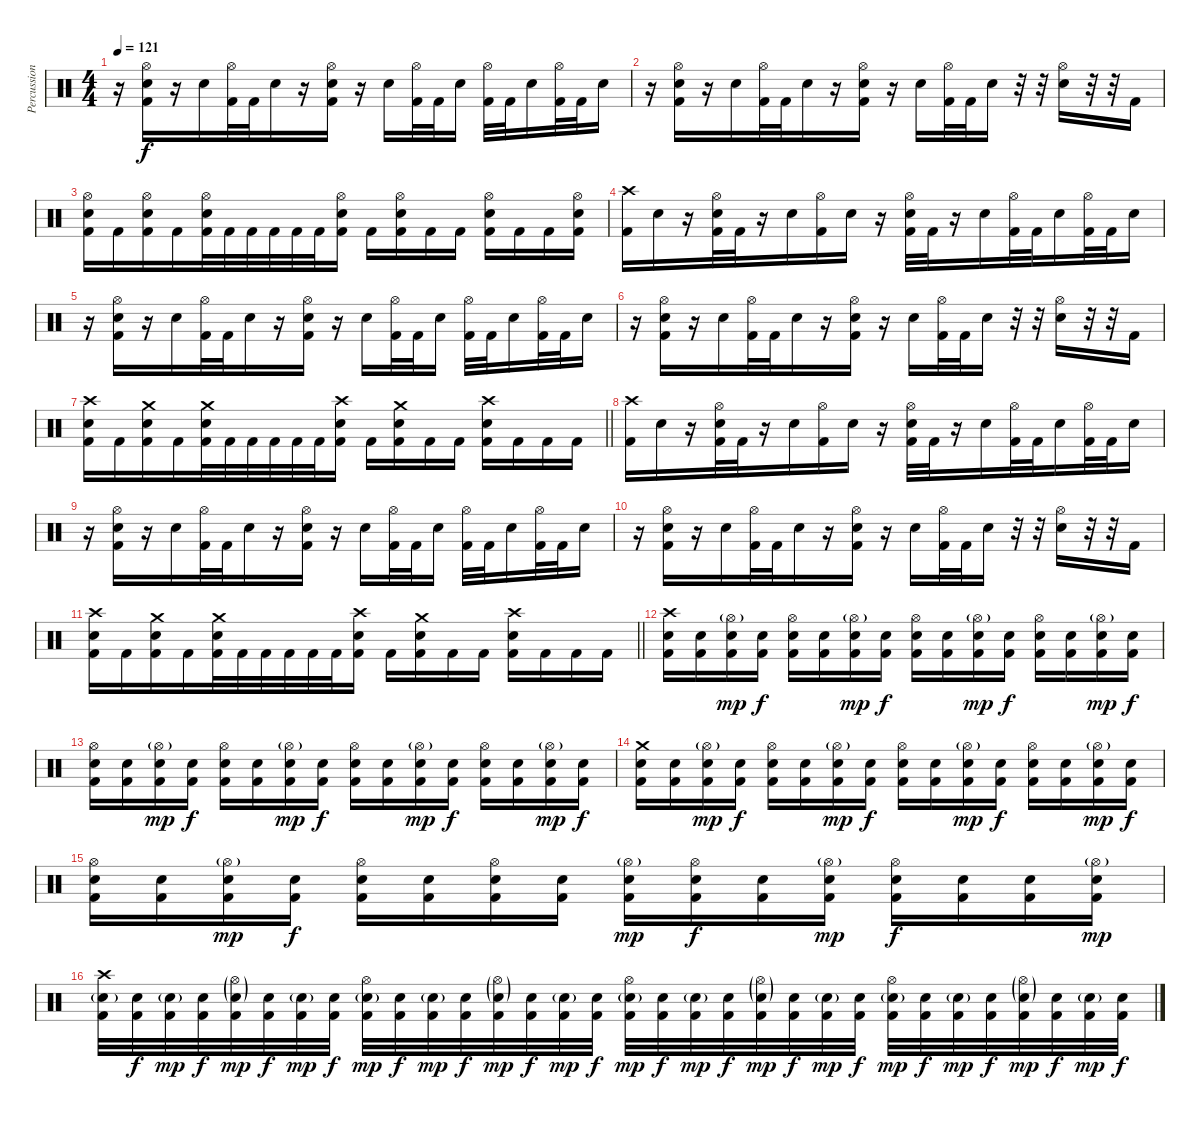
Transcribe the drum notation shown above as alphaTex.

\track ("Percussion" "Percussion") {instrument percussion}
\staff {score}
\articulation defaults
\ts (4 4)
\tempo 121
\clef neutral
\ks c
r.16{dy f} ("Hi-Hat (open)" "Electric Snare (hit)" "Kick (hit) 2").16 r.16 "Electric Snare (hit)".16{beam merge} ("Hi-Hat (open)" "Kick (hit) 2").32 "Kick (hit) 2".32 "Electric Snare (hit)".16 r.16 ("Hi-Hat (open)" "Electric Snare (hit)" "Kick (hit) 2").16 r.16 "Electric Snare (hit)".16 ("Hi-Hat (open)" "Kick (hit) 2").32{beam merge} "Kick (hit) 2".32 "Electric Snare (hit)".16 ("Hi-Hat (open)" "Kick (hit) 2").32{beam merge} "Kick (hit) 2".32 "Electric Snare (hit)".16{beam merge} ("Hi-Hat (open)" "Kick (hit) 2").32{beam merge} "Kick (hit) 2".32 "Electric Snare (hit)".16 |
r.16 ("Hi-Hat (open)" "Electric Snare (hit)" "Kick (hit) 2").16 r.16 "Electric Snare (hit)".16{beam merge} ("Hi-Hat (open)" "Kick (hit) 2").32 "Kick (hit) 2".32 "Electric Snare (hit)".16 r.16 ("Hi-Hat (open)" "Electric Snare (hit)" "Kick (hit) 2").16 r.16 "Electric Snare (hit)".16 ("Hi-Hat (open)" "Kick (hit) 2").32{beam merge} "Kick (hit) 2".32 "Electric Snare (hit)".16 r.32{beam merge} r.32 ("Hi-Hat (open)" "Electric Snare (hit)").16{beam merge} r.32{beam merge} r.32 "Kick (hit) 2".16 |
("Hi-Hat (open)" "Electric Snare (hit)" "Kick (hit) 2").16 "Kick (hit) 2".16 ("Hi-Hat (open)" "Electric Snare (hit)" "Kick (hit) 2").16 "Kick (hit) 2".16{beam merge} ("Hi-Hat (open)" "Electric Snare (hit)" "Kick (hit) 2").32 "Kick (hit) 2".32 "Kick (hit) 2".32 "Kick (hit) 2".32 "Kick (hit) 2".32{beam merge} "Kick (hit) 2".32 ("Hi-Hat (open)" "Electric Snare (hit)" "Kick (hit) 2").16 "Kick (hit) 2".16 ("Hi-Hat (open)" "Electric Snare (hit)" "Kick (hit) 2").16 "Kick (hit) 2".16 "Kick (hit) 2".16 ("Hi-Hat (open)" "Electric Snare (hit)" "Kick (hit) 2").16 "Kick (hit) 2".16 "Kick (hit) 2".16 ("Hi-Hat (open)" "Electric Snare (hit)" "Kick (hit) 2").16 |
("Crash high (hit)" "Kick (hit) 2").16 "Electric Snare (hit)".16{beam merge} r.16 ("Hi-Hat (open)" "Electric Snare (hit)" "Kick (hit) 2").32 "Kick (hit) 2".32{beam merge} r.16 "Electric Snare (hit)".16{beam merge} ("Hi-Hat (open)" "Kick (hit) 2").16 "Electric Snare (hit)".16 r.16{beam merge} ("Hi-Hat (open)" "Electric Snare (hit)" "Kick (hit) 2").32{beam merge} "Kick (hit) 2".32{beam merge} r.16 "Electric Snare (hit)".16{beam merge} ("Hi-Hat (open)" "Kick (hit) 2").32 "Kick (hit) 2".32 "Electric Snare (hit)".16{beam merge} ("Hi-Hat (open)" "Kick (hit) 2").32 "Kick (hit) 2".32 "Electric Snare (hit)".16 |
r.16 ("Hi-Hat (open)" "Electric Snare (hit)" "Kick (hit) 2").16 r.16 "Electric Snare (hit)".16{beam merge} ("Hi-Hat (open)" "Kick (hit) 2").32 "Kick (hit) 2".32 "Electric Snare (hit)".16 r.16 ("Hi-Hat (open)" "Electric Snare (hit)" "Kick (hit) 2").16 r.16 "Electric Snare (hit)".16 ("Hi-Hat (open)" "Kick (hit) 2").32{beam merge} "Kick (hit) 2".32 "Electric Snare (hit)".16 ("Hi-Hat (open)" "Kick (hit) 2").32{beam merge} "Kick (hit) 2".32 "Electric Snare (hit)".16{beam merge} ("Hi-Hat (open)" "Kick (hit) 2").32{beam merge} "Kick (hit) 2".32 "Electric Snare (hit)".16 |
r.16 ("Hi-Hat (open)" "Electric Snare (hit)" "Kick (hit) 2").16 r.16 "Electric Snare (hit)".16{beam merge} ("Hi-Hat (open)" "Kick (hit) 2").32 "Kick (hit) 2".32 "Electric Snare (hit)".16 r.16 ("Hi-Hat (open)" "Electric Snare (hit)" "Kick (hit) 2").16 r.16 "Electric Snare (hit)".16 ("Hi-Hat (open)" "Kick (hit) 2").32{beam merge} "Kick (hit) 2".32 "Electric Snare (hit)".16 r.32{beam merge} r.32 ("Hi-Hat (open)" "Electric Snare (hit)").16{beam merge} r.32{beam merge} r.32 "Kick (hit) 2".16 |
\barLineRight lightlight
("Crash high (hit)" "Electric Snare (hit)" "Kick (hit) 2").16 "Kick (hit) 2".16 ("Crash medium (hit)" "Electric Snare (hit)" "Kick (hit) 2").16 "Kick (hit) 2".16{beam merge} ("Crash medium (hit)" "Electric Snare (hit)" "Kick (hit) 2").32 "Kick (hit) 2".32 "Kick (hit) 2".32 "Kick (hit) 2".32 "Kick (hit) 2".32{beam merge} "Kick (hit) 2".32 ("Crash high (hit)" "Electric Snare (hit)" "Kick (hit) 2").16 "Kick (hit) 2".16 ("Crash medium (hit)" "Electric Snare (hit)" "Kick (hit) 2").16 "Kick (hit) 2".16 "Kick (hit) 2".16 ("Crash high (hit)" "Electric Snare (hit)" "Kick (hit) 2").16 "Kick (hit) 2".16 "Kick (hit) 2".16 "Kick (hit) 2".16 |
("Crash high (hit)" "Kick (hit) 2").16 "Electric Snare (hit)".16{beam merge} r.16 ("Hi-Hat (open)" "Electric Snare (hit)" "Kick (hit) 2").32 "Kick (hit) 2".32{beam merge} r.16 "Electric Snare (hit)".16{beam merge} ("Hi-Hat (open)" "Kick (hit) 2").16 "Electric Snare (hit)".16 r.16{beam merge} ("Hi-Hat (open)" "Electric Snare (hit)" "Kick (hit) 2").32{beam merge} "Kick (hit) 2".32{beam merge} r.16 "Electric Snare (hit)".16{beam merge} ("Hi-Hat (open)" "Kick (hit) 2").32 "Kick (hit) 2".32 "Electric Snare (hit)".16{beam merge} ("Hi-Hat (open)" "Kick (hit) 2").32 "Kick (hit) 2".32 "Electric Snare (hit)".16 |
r.16 ("Hi-Hat (open)" "Electric Snare (hit)" "Kick (hit) 2").16 r.16 "Electric Snare (hit)".16{beam merge} ("Hi-Hat (open)" "Kick (hit) 2").32 "Kick (hit) 2".32 "Electric Snare (hit)".16 r.16 ("Hi-Hat (open)" "Electric Snare (hit)" "Kick (hit) 2").16 r.16 "Electric Snare (hit)".16 ("Hi-Hat (open)" "Kick (hit) 2").32{beam merge} "Kick (hit) 2".32 "Electric Snare (hit)".16 ("Hi-Hat (open)" "Kick (hit) 2").32{beam merge} "Kick (hit) 2".32 "Electric Snare (hit)".16{beam merge} ("Hi-Hat (open)" "Kick (hit) 2").32{beam merge} "Kick (hit) 2".32 "Electric Snare (hit)".16 |
r.16 ("Hi-Hat (open)" "Electric Snare (hit)" "Kick (hit) 2").16 r.16 "Electric Snare (hit)".16{beam merge} ("Hi-Hat (open)" "Kick (hit) 2").32 "Kick (hit) 2".32 "Electric Snare (hit)".16 r.16 ("Hi-Hat (open)" "Electric Snare (hit)" "Kick (hit) 2").16 r.16 "Electric Snare (hit)".16 ("Hi-Hat (open)" "Kick (hit) 2").32{beam merge} "Kick (hit) 2".32 "Electric Snare (hit)".16 r.32{beam merge} r.32 ("Hi-Hat (open)" "Electric Snare (hit)").16{beam merge} r.32{beam merge} r.32 "Kick (hit) 2".16 |
\barLineRight lightlight
("Crash high (hit)" "Electric Snare (hit)" "Kick (hit) 2").16 "Kick (hit) 2".16 ("Crash medium (hit)" "Electric Snare (hit)" "Kick (hit) 2").16 "Kick (hit) 2".16{beam merge} ("Crash medium (hit)" "Electric Snare (hit)" "Kick (hit) 2").32 "Kick (hit) 2".32 "Kick (hit) 2".32 "Kick (hit) 2".32 "Kick (hit) 2".32{beam merge} "Kick (hit) 2".32 ("Crash high (hit)" "Electric Snare (hit)" "Kick (hit) 2").16 "Kick (hit) 2".16 ("Crash medium (hit)" "Electric Snare (hit)" "Kick (hit) 2").16 "Kick (hit) 2".16 "Kick (hit) 2".16 ("Crash high (hit)" "Electric Snare (hit)" "Kick (hit) 2").16 "Kick (hit) 2".16 "Kick (hit) 2".16 "Kick (hit) 2".16 |
\section ("" "")
("Crash high (hit)" "Electric Snare (hit)" "Kick (hit) 2").16 ("Electric Snare (hit)" "Kick (hit) 2").16{beam merge} ("Hi-Hat (open)"{g} "Electric Snare (hit)" "Kick (hit) 2").16{dy mp beam merge} ("Electric Snare (hit)" "Kick (hit) 2").16{dy f} ("Hi-Hat (open)" "Electric Snare (hit)" "Kick (hit) 2").16 ("Electric Snare (hit)" "Kick (hit) 2").16 ("Hi-Hat (open)"{g} "Electric Snare (hit)" "Kick (hit) 2").16{dy mp beam merge} ("Electric Snare (hit)" "Kick (hit) 2").16{dy f} ("Hi-Hat (open)" "Electric Snare (hit)" "Kick (hit) 2").16 ("Electric Snare (hit)" "Kick (hit) 2").16{beam merge} ("Hi-Hat (open)"{g} "Electric Snare (hit)" "Kick (hit) 2").16{dy mp beam merge} ("Electric Snare (hit)" "Kick (hit) 2").16{dy f} ("Hi-Hat (open)" "Electric Snare (hit)" "Kick (hit) 2").16 ("Electric Snare (hit)" "Kick (hit) 2").16 ("Hi-Hat (open)"{g} "Electric Snare (hit)" "Kick (hit) 2").16{dy mp beam merge} ("Electric Snare (hit)" "Kick (hit) 2").16{dy f} |
("Hi-Hat (open)" "Electric Snare (hit)" "Kick (hit) 2").16 ("Electric Snare (hit)" "Kick (hit) 2").16{beam merge} ("Hi-Hat (open)"{g} "Electric Snare (hit)" "Kick (hit) 2").16{dy mp beam merge} ("Electric Snare (hit)" "Kick (hit) 2").16{dy f} ("Hi-Hat (open)" "Electric Snare (hit)" "Kick (hit) 2").16 ("Electric Snare (hit)" "Kick (hit) 2").16 ("Hi-Hat (open)"{g} "Electric Snare (hit)" "Kick (hit) 2").16{dy mp beam merge} ("Electric Snare (hit)" "Kick (hit) 2").16{dy f} ("Hi-Hat (open)" "Electric Snare (hit)" "Kick (hit) 2").16 ("Electric Snare (hit)" "Kick (hit) 2").16{beam merge} ("Hi-Hat (open)"{g} "Electric Snare (hit)" "Kick (hit) 2").16{dy mp beam merge} ("Electric Snare (hit)" "Kick (hit) 2").16{dy f} ("Hi-Hat (open)" "Electric Snare (hit)" "Kick (hit) 2").16 ("Electric Snare (hit)" "Kick (hit) 2").16 ("Hi-Hat (open)"{g} "Electric Snare (hit)" "Kick (hit) 2").16{dy mp beam merge} ("Electric Snare (hit)" "Kick (hit) 2").16{dy f} |
("Crash medium (hit)" "Electric Snare (hit)" "Kick (hit) 2").16 ("Electric Snare (hit)" "Kick (hit) 2").16{beam merge} ("Hi-Hat (open)"{g} "Electric Snare (hit)" "Kick (hit) 2").16{dy mp beam merge} ("Electric Snare (hit)" "Kick (hit) 2").16{dy f} ("Hi-Hat (open)" "Electric Snare (hit)" "Kick (hit) 2").16 ("Electric Snare (hit)" "Kick (hit) 2").16 ("Hi-Hat (open)"{g} "Electric Snare (hit)" "Kick (hit) 2").16{dy mp beam merge} ("Electric Snare (hit)" "Kick (hit) 2").16{dy f} ("Hi-Hat (open)" "Electric Snare (hit)" "Kick (hit) 2").16 ("Electric Snare (hit)" "Kick (hit) 2").16{beam merge} ("Hi-Hat (open)"{g} "Electric Snare (hit)" "Kick (hit) 2").16{dy mp beam merge} ("Electric Snare (hit)" "Kick (hit) 2").16{dy f} ("Hi-Hat (open)" "Electric Snare (hit)" "Kick (hit) 2").16 ("Electric Snare (hit)" "Kick (hit) 2").16 ("Hi-Hat (open)"{g} "Electric Snare (hit)" "Kick (hit) 2").16{dy mp beam merge} ("Electric Snare (hit)" "Kick (hit) 2").16{dy f} |
("Hi-Hat (open)" "Electric Snare (hit)" "Kick (hit) 2").16 ("Electric Snare (hit)" "Kick (hit) 2").16{beam merge} ("Hi-Hat (open)"{g} "Electric Snare (hit)" "Kick (hit) 2").16{dy mp beam merge} ("Electric Snare (hit)" "Kick (hit) 2").16{dy f} ("Hi-Hat (open)" "Electric Snare (hit)" "Kick (hit) 2").16 ("Electric Snare (hit)" "Kick (hit) 2").16 ("Hi-Hat (open)" "Electric Snare (hit)" "Kick (hit) 2").16{beam merge} ("Electric Snare (hit)" "Kick (hit) 2").16 ("Hi-Hat (open)"{g} "Electric Snare (hit)" "Kick (hit) 2").16{dy mp} ("Hi-Hat (open)" "Electric Snare (hit)" "Kick (hit) 2").16{dy f beam merge} ("Electric Snare (hit)" "Kick (hit) 2").16{beam merge} ("Hi-Hat (open)"{g} "Electric Snare (hit)" "Kick (hit) 2").16{dy mp} ("Hi-Hat (open)" "Electric Snare (hit)" "Kick (hit) 2").16{dy f} ("Electric Snare (hit)" "Kick (hit) 2").16 ("Electric Snare (hit)" "Kick (hit) 2").16{beam merge} ("Hi-Hat (open)"{g} "Electric Snare (hit)" "Kick (hit) 2").16{dy mp} |
("Crash high (hit)" "Electric Snare (hit)"{g} "Kick (hit) 2").32 ("Electric Snare (hit)" "Kick (hit) 2").32{dy f} ("Electric Snare (hit)"{g} "Kick (hit) 2").32{dy mp} ("Electric Snare (hit)" "Kick (hit) 2").32{dy f beam merge} ("Hi-Hat (open)"{g} "Electric Snare (hit)"{g} "Kick (hit) 2").32{dy mp beam merge} ("Electric Snare (hit)" "Kick (hit) 2").32{dy f beam merge} ("Electric Snare (hit)"{g} "Kick (hit) 2").32{dy mp} ("Electric Snare (hit)" "Kick (hit) 2").32{dy f} ("Hi-Hat (open)" "Electric Snare (hit)"{g} "Kick (hit) 2").32{dy mp} ("Electric Snare (hit)" "Kick (hit) 2").32{dy f} ("Electric Snare (hit)"{g} "Kick (hit) 2").32{dy mp} ("Electric Snare (hit)" "Kick (hit) 2").32{dy f} ("Hi-Hat (open)"{g} "Electric Snare (hit)"{g} "Kick (hit) 2").32{dy mp} ("Electric Snare (hit)" "Kick (hit) 2").32{dy f beam merge} ("Electric Snare (hit)"{g} "Kick (hit) 2").32{dy mp} ("Electric Snare (hit)" "Kick (hit) 2").32{dy f} ("Hi-Hat (open)" "Electric Snare (hit)"{g} "Kick (hit) 2").32{dy mp} ("Electric Snare (hit)" "Kick (hit) 2").32{dy f} ("Electric Snare (hit)"{g} "Kick (hit) 2").32{dy mp} ("Electric Snare (hit)" "Kick (hit) 2").32{dy f beam merge} ("Hi-Hat (open)"{g} "Electric Snare (hit)"{g} "Kick (hit) 2").32{dy mp beam merge} ("Electric Snare (hit)" "Kick (hit) 2").32{dy f beam merge} ("Electric Snare (hit)"{g} "Kick (hit) 2").32{dy mp beam merge} ("Electric Snare (hit)" "Kick (hit) 2").32{dy f} ("Hi-Hat (open)" "Electric Snare (hit)"{g} "Kick (hit) 2").32{dy mp} ("Electric Snare (hit)" "Kick (hit) 2").32{dy f} ("Electric Snare (hit)"{g} "Kick (hit) 2").32{dy mp beam merge} ("Electric Snare (hit)" "Kick (hit) 2").32{dy f} ("Hi-Hat (open)"{g} "Electric Snare (hit)"{g} "Kick (hit) 2").32{dy mp beam merge} ("Electric Snare (hit)" "Kick (hit) 2").32{dy f beam merge} ("Electric Snare (hit)"{g} "Kick (hit) 2").32{dy mp beam merge} ("Electric Snare (hit)" "Kick (hit) 2").32{dy f}
